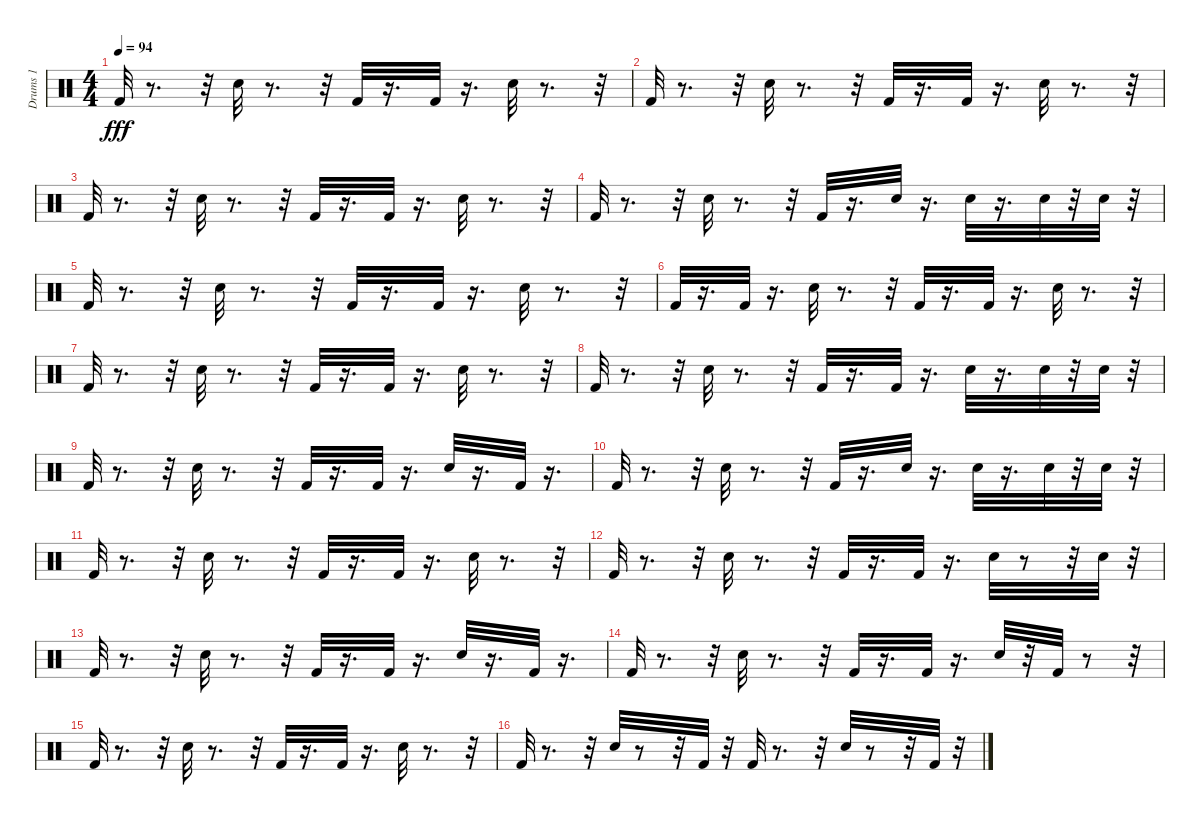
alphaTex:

\track ("Drums 1" "Drums 1") {instrument percussion}
\staff {score}
\articulation defaults
\ts (4 4)
\tempo 94
\clef neutral
\ks c "Kick (hit) 2".32{dy fff}
r.8{d} r.32 "Electric Snare (hit)".32 r.8{d} r.32 "Kick (hit) 2".32 r.16{d} "Kick (hit) 2".32 r.16{d} "Electric Snare (hit)".32 r.8{d} r.32 |
"Kick (hit) 2".32 r.8{d} r.32 "Electric Snare (hit)".32 r.8{d} r.32 "Kick (hit) 2".32 r.16{d} "Kick (hit) 2".32 r.16{d} "Electric Snare (hit)".32 r.8{d} r.32 |
"Kick (hit) 2".32 r.8{d} r.32 "Electric Snare (hit)".32 r.8{d} r.32 "Kick (hit) 2".32 r.16{d} "Kick (hit) 2".32 r.16{d} "Electric Snare (hit)".32 r.8{d} r.32 |
"Kick (hit) 2".32 r.8{d} r.32 "Electric Snare (hit)".32 r.8{d} r.32 "Kick (hit) 2".32 r.16{d} "Electric Snare (hit)".32 r.16{d} "Electric Snare (hit)".32 r.16{d} "Electric Snare (hit)".32 r.32 "Electric Snare (hit)".32 r.32 |
"Kick (hit) 2".32 r.8{d} r.32 "Electric Snare (hit)".32 r.8{d} r.32 "Kick (hit) 2".32 r.16{d} "Kick (hit) 2".32 r.16{d} "Electric Snare (hit)".32 r.8{d} r.32 |
"Kick (hit) 2".32 r.16{d} "Kick (hit) 2".32 r.16{d} "Electric Snare (hit)".32 r.8{d} r.32 "Kick (hit) 2".32 r.16{d} "Kick (hit) 2".32 r.16{d} "Electric Snare (hit)".32 r.8{d} r.32 |
"Kick (hit) 2".32 r.8{d} r.32 "Electric Snare (hit)".32 r.8{d} r.32 "Kick (hit) 2".32 r.16{d} "Kick (hit) 2".32 r.16{d} "Electric Snare (hit)".32 r.8{d} r.32 |
"Kick (hit) 2".32 r.8{d} r.32 "Electric Snare (hit)".32 r.8{d} r.32 "Kick (hit) 2".32 r.16{d} "Kick (hit) 2".32 r.16{d} "Electric Snare (hit)".32 r.16{d} "Electric Snare (hit)".32 r.32 "Electric Snare (hit)".32 r.32 |
"Kick (hit) 2".32 r.8{d} r.32 "Electric Snare (hit)".32 r.8{d} r.32 "Kick (hit) 2".32 r.16{d} "Kick (hit) 2".32 r.16{d} "Electric Snare (hit)".32 r.16{d} "Kick (hit) 2".32 r.16{d} |
"Kick (hit) 2".32 r.8{d} r.32 "Electric Snare (hit)".32 r.8{d} r.32 "Kick (hit) 2".32 r.16{d} "Electric Snare (hit)".32 r.16{d} "Electric Snare (hit)".32 r.16{d} "Electric Snare (hit)".32 r.32 "Electric Snare (hit)".32 r.32 |
"Kick (hit) 2".32 r.8{d} r.32 "Electric Snare (hit)".32 r.8{d} r.32 "Kick (hit) 2".32 r.16{d} "Kick (hit) 2".32 r.16{d} "Electric Snare (hit)".32 r.8{d} r.32 |
"Kick (hit) 2".32 r.8{d} r.32 "Electric Snare (hit)".32 r.8{d} r.32 "Kick (hit) 2".32 r.16{d} "Kick (hit) 2".32 r.16{d} "Electric Snare (hit)".32 r.8 r.32 "Electric Snare (hit)".32 r.32 |
"Kick (hit) 2".32 r.8{d} r.32 "Electric Snare (hit)".32 r.8{d} r.32 "Kick (hit) 2".32 r.16{d} "Kick (hit) 2".32 r.16{d} "Electric Snare (hit)".32 r.16{d} "Kick (hit) 2".32 r.16{d} |
"Kick (hit) 2".32 r.8{d} r.32 "Electric Snare (hit)".32 r.8{d} r.32 "Kick (hit) 2".32 r.16{d} "Kick (hit) 2".32 r.16{d} "Electric Snare (hit)".32 r.32 "Kick (hit) 2".32 r.8 r.32 |
"Kick (hit) 2".32 r.8{d} r.32 "Electric Snare (hit)".32 r.8{d} r.32 "Kick (hit) 2".32 r.16{d} "Kick (hit) 2".32 r.16{d} "Electric Snare (hit)".32 r.8{d} r.32 |
"Kick (hit) 2".32 r.8{d} r.32 "Electric Snare (hit)".32 r.8 r.32 "Kick (hit) 2".32 r.32 "Kick (hit) 2".32 r.8{d} r.32 "Electric Snare (hit)".32 r.8 r.32 "Kick (hit) 2".32 r.32
